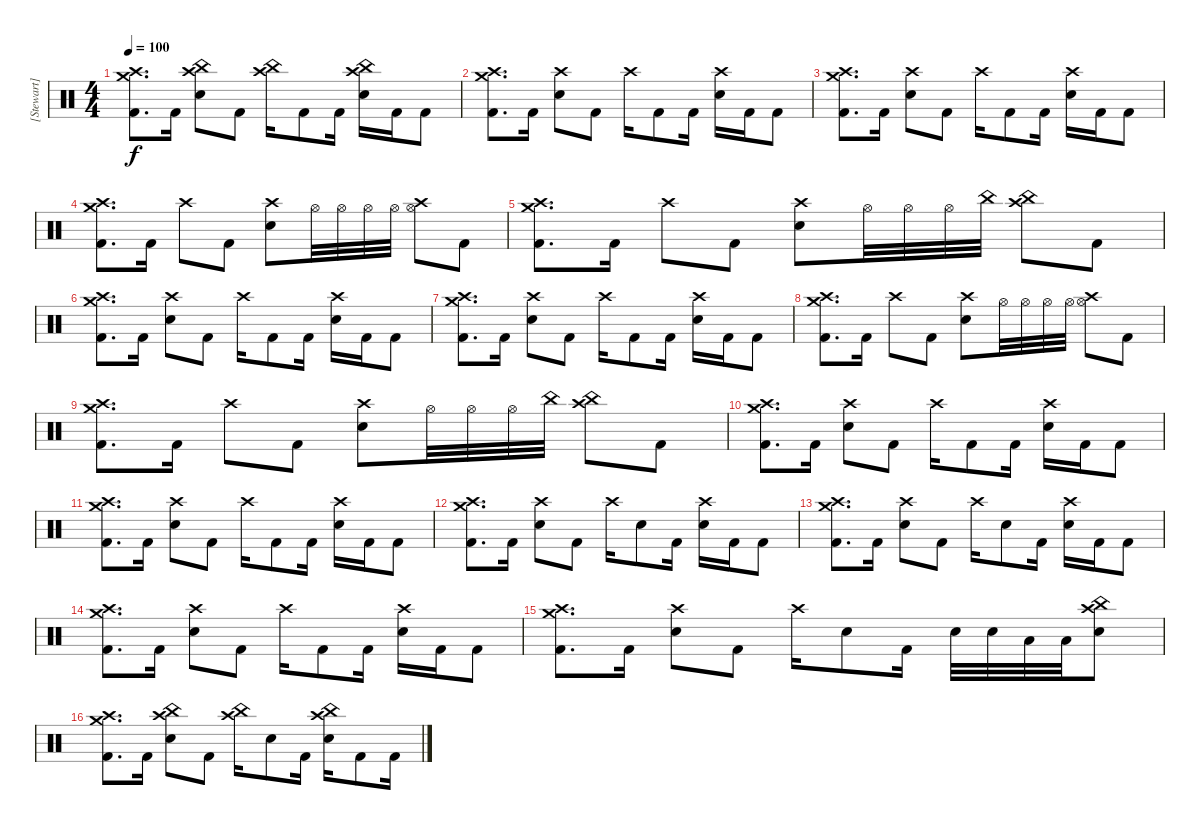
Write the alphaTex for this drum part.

\track ("[Stewart]" "[Stewart]") {instrument percussion}
\staff {score}
\articulation defaults
\ts (4 4)
\tempo 100
\clef neutral
\ks c
("Crash high (hit)" "Crash medium (hit)" "Kick (hit) 2").8{d dy f} "Kick (hit) 2".16 ("Crash high (hit)" "China (hit)" "Electric Snare (hit)").8 "Kick (hit) 2".8 ("Crash high (hit)" "China (hit)").16 "Kick (hit) 2".8 "Kick (hit) 2".16 ("Crash high (hit)" "China (hit)" "Electric Snare (hit)").16 "Kick (hit) 2".16 "Kick (hit) 2".8 |
("Crash high (hit)" "Crash medium (hit)" "Kick (hit) 2").8{d} "Kick (hit) 2".16 ("Crash high (hit)" "Electric Snare (hit)").8 "Kick (hit) 2".8 "Crash high (hit)".16 "Kick (hit) 2".8 "Kick (hit) 2".16 ("Crash high (hit)" "Electric Snare (hit)").16 "Kick (hit) 2".16 "Kick (hit) 2".8 |
("Crash high (hit)" "Crash medium (hit)" "Kick (hit) 2").8{d} "Kick (hit) 2".16 ("Crash high (hit)" "Electric Snare (hit)").8 "Kick (hit) 2".8 "Crash high (hit)".16 "Kick (hit) 2".8 "Kick (hit) 2".16 ("Crash high (hit)" "Electric Snare (hit)").16 "Kick (hit) 2".16 "Kick (hit) 2".8 |
("Crash high (hit)" "Crash medium (hit)" "Kick (hit) 2").8{d} "Kick (hit) 2".16 "Crash high (hit)".8 "Kick (hit) 2".8 ("Crash high (hit)" "Electric Snare (hit)").8 "Hi-Hat (open)".32 "Hi-Hat (open)".32 "Hi-Hat (open)".32 "Hi-Hat (open)".32 ("Hi-Hat (open)" "Crash high (hit)").8 "Kick (hit) 2".8 |
("Crash high (hit)" "Crash medium (hit)" "Kick (hit) 2").8{d} "Kick (hit) 2".16 "Crash high (hit)".8 "Kick (hit) 2".8 ("Crash high (hit)" "Electric Snare (hit)").8 "Hi-Hat (open)".32 "Hi-Hat (open)".32 "Hi-Hat (open)".32 "China (hit)".32 ("China (hit)" "Crash high (hit)").8 "Kick (hit) 2".8 |
("Crash high (hit)" "Crash medium (hit)" "Kick (hit) 2").8{d} "Kick (hit) 2".16 ("Crash high (hit)" "Electric Snare (hit)").8 "Kick (hit) 2".8 "Crash high (hit)".16 "Kick (hit) 2".8 "Kick (hit) 2".16 ("Crash high (hit)" "Electric Snare (hit)").16 "Kick (hit) 2".16 "Kick (hit) 2".8 |
("Crash high (hit)" "Crash medium (hit)" "Kick (hit) 2").8{d} "Kick (hit) 2".16 ("Crash high (hit)" "Electric Snare (hit)").8 "Kick (hit) 2".8 "Crash high (hit)".16 "Kick (hit) 2".8 "Kick (hit) 2".16 ("Crash high (hit)" "Electric Snare (hit)").16 "Kick (hit) 2".16 "Kick (hit) 2".8 |
("Crash high (hit)" "Crash medium (hit)" "Kick (hit) 2").8{d} "Kick (hit) 2".16 "Crash high (hit)".8 "Kick (hit) 2".8 ("Crash high (hit)" "Electric Snare (hit)").8 "Hi-Hat (open)".32 "Hi-Hat (open)".32 "Hi-Hat (open)".32 "Hi-Hat (open)".32 ("Hi-Hat (open)" "Crash high (hit)").8 "Kick (hit) 2".8 |
("Crash high (hit)" "Crash medium (hit)" "Kick (hit) 2").8{d} "Kick (hit) 2".16 "Crash high (hit)".8 "Kick (hit) 2".8 ("Crash high (hit)" "Electric Snare (hit)").8 "Hi-Hat (open)".32 "Hi-Hat (open)".32 "Hi-Hat (open)".32 "China (hit)".32 ("China (hit)" "Crash high (hit)").8 "Kick (hit) 2".8 |
("Crash high (hit)" "Crash medium (hit)" "Kick (hit) 2").8{d} "Kick (hit) 2".16 ("Crash high (hit)" "Electric Snare (hit)").8 "Kick (hit) 2".8 "Crash high (hit)".16 "Kick (hit) 2".8 "Kick (hit) 2".16 ("Crash high (hit)" "Electric Snare (hit)").16 "Kick (hit) 2".16 "Kick (hit) 2".8 |
("Crash high (hit)" "Crash medium (hit)" "Kick (hit) 2").8{d} "Kick (hit) 2".16 ("Crash high (hit)" "Electric Snare (hit)").8 "Kick (hit) 2".8 "Crash high (hit)".16 "Kick (hit) 2".8 "Kick (hit) 2".16 ("Crash high (hit)" "Electric Snare (hit)").16 "Kick (hit) 2".16 "Kick (hit) 2".8 |
("Crash high (hit)" "Crash medium (hit)" "Kick (hit) 2").8{d} "Kick (hit) 2".16 ("Crash high (hit)" "Electric Snare (hit)").8 "Kick (hit) 2".8 "Crash high (hit)".16 "Electric Snare (hit)".8 "Kick (hit) 2".16 ("Crash high (hit)" "Electric Snare (hit)").16 "Kick (hit) 2".16 "Kick (hit) 2".8 |
("Crash high (hit)" "Crash medium (hit)" "Kick (hit) 2").8{d} "Kick (hit) 2".16 ("Crash high (hit)" "Electric Snare (hit)").8 "Kick (hit) 2".8 "Crash high (hit)".16 "Electric Snare (hit)".8 "Kick (hit) 2".16 ("Crash high (hit)" "Electric Snare (hit)").16 "Kick (hit) 2".16 "Kick (hit) 2".8 |
("Crash high (hit)" "Crash medium (hit)" "Kick (hit) 2").8{d} "Kick (hit) 2".16 ("Crash high (hit)" "Electric Snare (hit)").8 "Kick (hit) 2".8 "Crash high (hit)".16 "Kick (hit) 2".8 "Kick (hit) 2".16 ("Crash high (hit)" "Electric Snare (hit)").16 "Kick (hit) 2".16 "Kick (hit) 2".8 |
("Crash high (hit)" "Crash medium (hit)" "Kick (hit) 2").8{d} "Kick (hit) 2".16 ("Crash high (hit)" "Electric Snare (hit)").8 "Kick (hit) 2".8 "Crash high (hit)".16 "Electric Snare (hit)".8 "Kick (hit) 2".16 "Electric Snare (hit)".32 "Electric Snare (hit)".32 "Low Tom (hit)".32 "Low Tom (hit)".32 ("Crash high (hit)" "China (hit)" "Electric Snare (hit)").8 |
("Crash high (hit)" "Crash medium (hit)" "Kick (hit) 2").8{d} "Kick (hit) 2".16 ("Crash high (hit)" "China (hit)" "Electric Snare (hit)").8 "Kick (hit) 2".8 ("Crash high (hit)" "China (hit)").16 "Electric Snare (hit)".8 "Kick (hit) 2".16 ("Crash high (hit)" "China (hit)" "Electric Snare (hit)").16 "Kick (hit) 2".8 "Kick (hit) 2".16
